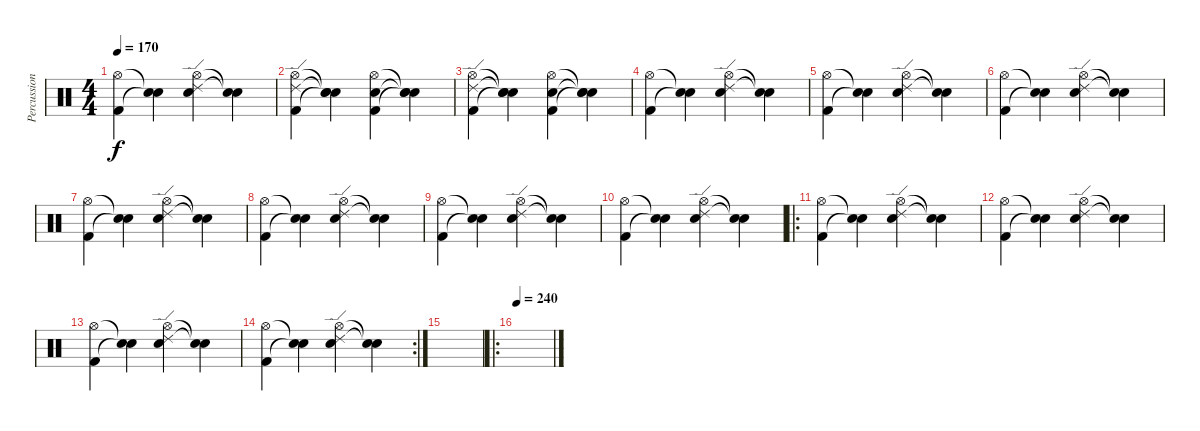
\track ("Percussion" "Percussion") {instrument percussion}
\staff {score}
\articulation defaults
\ts (4 4)
\tempo 170
\clef neutral
\ks c
("Hi-Hat (open)" "Kick (hit) 2").4{dy f} ("Electric Snare (hit)"{t} "Snare (hit)"{t}).4 ("Hi-Hat (open)" "Ride (edge) 2" "Electric Snare (hit)").4 ("Electric Snare (hit)"{t} "Snare (hit)"{t}).4 |
("Ride (edge) 2" "Hi-Hat (open)" "Kick (hit) 2").4 ("Snare (hit)"{t} "Snare (hit)"{t} "Snare (hit)"{t}).4 ("Electric Snare (hit)" "Hi-Hat (open)" "Kick (hit) 2").4 ("Snare (hit)"{t} "Snare (hit)"{t} "Snare (hit)"{t}).4 |
("Ride (edge) 2" "Hi-Hat (open)" "Kick (hit) 2").4 ("Snare (hit)"{t} "Snare (hit)"{t} "Snare (hit)"{t}).4 ("Electric Snare (hit)" "Hi-Hat (open)" "Kick (hit) 2").4 ("Snare (hit)"{t} "Snare (hit)"{t} "Snare (hit)"{t}).4 |
("Hi-Hat (open)" "Kick (hit) 2").4 ("Electric Snare (hit)"{t} "Snare (hit)"{t}).4 ("Hi-Hat (open)" "Ride (edge) 2" "Electric Snare (hit)").4 ("Electric Snare (hit)"{t} "Snare (hit)"{t}).4 |
("Hi-Hat (open)" "Kick (hit) 2").4 ("Electric Snare (hit)"{t} "Snare (hit)"{t}).4 ("Hi-Hat (open)" "Ride (edge) 2" "Electric Snare (hit)").4 ("Electric Snare (hit)"{t} "Snare (hit)"{t}).4 |
("Hi-Hat (open)" "Kick (hit) 2").4 ("Electric Snare (hit)"{t} "Snare (hit)"{t}).4 ("Hi-Hat (open)" "Ride (edge) 2" "Electric Snare (hit)").4 ("Electric Snare (hit)"{t} "Snare (hit)"{t}).4 |
("Hi-Hat (open)" "Kick (hit) 2").4 ("Electric Snare (hit)"{t} "Snare (hit)"{t}).4 ("Hi-Hat (open)" "Ride (edge) 2" "Electric Snare (hit)").4 ("Electric Snare (hit)"{t} "Snare (hit)"{t}).4 |
("Hi-Hat (open)" "Kick (hit) 2").4 ("Electric Snare (hit)"{t} "Snare (hit)"{t}).4 ("Hi-Hat (open)" "Ride (edge) 2" "Electric Snare (hit)").4 ("Electric Snare (hit)"{t} "Snare (hit)"{t}).4 |
("Hi-Hat (open)" "Kick (hit) 2").4 ("Electric Snare (hit)"{t} "Snare (hit)"{t}).4 ("Hi-Hat (open)" "Ride (edge) 2" "Electric Snare (hit)").4 ("Electric Snare (hit)"{t} "Snare (hit)"{t}).4 |
("Hi-Hat (open)" "Kick (hit) 2").4 ("Electric Snare (hit)"{t} "Snare (hit)"{t}).4 ("Hi-Hat (open)" "Ride (edge) 2" "Electric Snare (hit)").4 ("Electric Snare (hit)"{t} "Snare (hit)"{t}).4 |
\ro
("Hi-Hat (open)" "Kick (hit) 2").4 ("Electric Snare (hit)"{t} "Snare (hit)"{t}).4 ("Hi-Hat (open)" "Ride (edge) 2" "Electric Snare (hit)").4 ("Electric Snare (hit)"{t} "Snare (hit)"{t}).4 |
("Hi-Hat (open)" "Kick (hit) 2").4 ("Electric Snare (hit)"{t} "Snare (hit)"{t}).4 ("Hi-Hat (open)" "Ride (edge) 2" "Electric Snare (hit)").4 ("Electric Snare (hit)"{t} "Snare (hit)"{t}).4 |
("Hi-Hat (open)" "Kick (hit) 2").4 ("Electric Snare (hit)"{t} "Snare (hit)"{t}).4 ("Hi-Hat (open)" "Ride (edge) 2" "Electric Snare (hit)").4 ("Electric Snare (hit)"{t} "Snare (hit)"{t}).4 |
\rc 2
("Hi-Hat (open)" "Kick (hit) 2").4 ("Electric Snare (hit)"{t} "Snare (hit)"{t}).4 ("Hi-Hat (open)" "Ride (edge) 2" "Electric Snare (hit)").4 ("Electric Snare (hit)"{t} "Snare (hit)"{t}).4 |
|
\ro
\tempo 240
